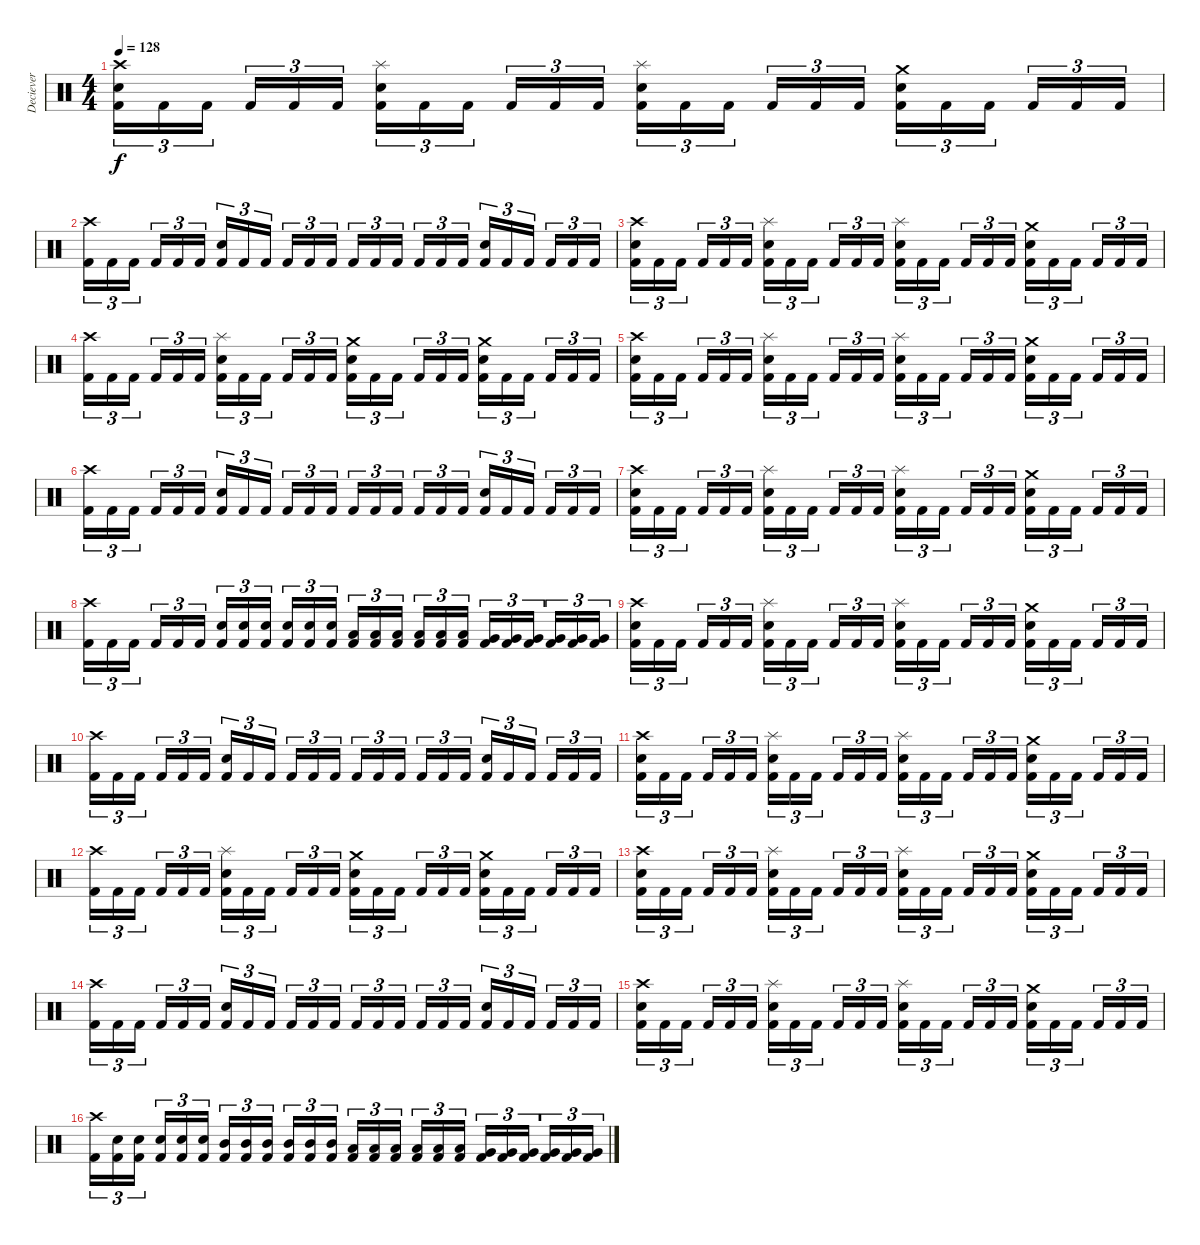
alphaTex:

\track ("Deciever" "Deciever") {instrument percussion}
\staff {score}
\articulation defaults
\ts (4 4)
\tempo 128
\clef neutral
\ks c
("Crash high (hit)" "Electric Snare (hit)" "Kick (hit) 2").16{tu (3 2) dy f} "Kick (hit) 2".16{tu (3 2)} "Kick (hit) 2".16{tu (3 2) beam splitsecondary} "Kick (hit) 2".16{tu (3 2)} "Kick (hit) 2".16{tu (3 2)} "Kick (hit) 2".16{tu (3 2)} ("Splash (hit)" "Electric Snare (hit)" "Kick (hit) 2").16{tu (3 2)} "Kick (hit) 2".16{tu (3 2)} "Kick (hit) 2".16{tu (3 2) beam splitsecondary} "Kick (hit) 2".16{tu (3 2)} "Kick (hit) 2".16{tu (3 2)} "Kick (hit) 2".16{tu (3 2)} ("Splash (hit)" "Electric Snare (hit)" "Kick (hit) 2").16{tu (3 2)} "Kick (hit) 2".16{tu (3 2)} "Kick (hit) 2".16{tu (3 2) beam splitsecondary} "Kick (hit) 2".16{tu (3 2)} "Kick (hit) 2".16{tu (3 2)} "Kick (hit) 2".16{tu (3 2)} ("Crash medium (hit)" "Electric Snare (hit)" "Kick (hit) 2").16{tu (3 2)} "Kick (hit) 2".16{tu (3 2)} "Kick (hit) 2".16{tu (3 2) beam splitsecondary} "Kick (hit) 2".16{tu (3 2)} "Kick (hit) 2".16{tu (3 2)} "Kick (hit) 2".16{tu (3 2)} |
("Crash high (hit)" "Kick (hit) 2").16{tu (3 2)} "Kick (hit) 2".16{tu (3 2)} "Kick (hit) 2".16{tu (3 2) beam splitsecondary} "Kick (hit) 2".16{tu (3 2)} "Kick (hit) 2".16{tu (3 2)} "Kick (hit) 2".16{tu (3 2)} ("Electric Snare (hit)" "Kick (hit) 2").16{tu (3 2)} "Kick (hit) 2".16{tu (3 2)} "Kick (hit) 2".16{tu (3 2) beam splitsecondary} "Kick (hit) 2".16{tu (3 2)} "Kick (hit) 2".16{tu (3 2)} "Kick (hit) 2".16{tu (3 2)} "Kick (hit) 2".16{tu (3 2)} "Kick (hit) 2".16{tu (3 2)} "Kick (hit) 2".16{tu (3 2) beam splitsecondary} "Kick (hit) 2".16{tu (3 2)} "Kick (hit) 2".16{tu (3 2)} "Kick (hit) 2".16{tu (3 2)} ("Electric Snare (hit)" "Kick (hit) 2").16{tu (3 2)} "Kick (hit) 2".16{tu (3 2)} "Kick (hit) 2".16{tu (3 2) beam splitsecondary} "Kick (hit) 2".16{tu (3 2)} "Kick (hit) 2".16{tu (3 2)} "Kick (hit) 2".16{tu (3 2)} |
("Crash high (hit)" "Electric Snare (hit)" "Kick (hit) 2").16{tu (3 2)} "Kick (hit) 2".16{tu (3 2)} "Kick (hit) 2".16{tu (3 2) beam splitsecondary} "Kick (hit) 2".16{tu (3 2)} "Kick (hit) 2".16{tu (3 2)} "Kick (hit) 2".16{tu (3 2)} ("Splash (hit)" "Electric Snare (hit)" "Kick (hit) 2").16{tu (3 2)} "Kick (hit) 2".16{tu (3 2)} "Kick (hit) 2".16{tu (3 2) beam splitsecondary} "Kick (hit) 2".16{tu (3 2)} "Kick (hit) 2".16{tu (3 2)} "Kick (hit) 2".16{tu (3 2)} ("Splash (hit)" "Electric Snare (hit)" "Kick (hit) 2").16{tu (3 2)} "Kick (hit) 2".16{tu (3 2)} "Kick (hit) 2".16{tu (3 2) beam splitsecondary} "Kick (hit) 2".16{tu (3 2)} "Kick (hit) 2".16{tu (3 2)} "Kick (hit) 2".16{tu (3 2)} ("Crash medium (hit)" "Electric Snare (hit)" "Kick (hit) 2").16{tu (3 2)} "Kick (hit) 2".16{tu (3 2)} "Kick (hit) 2".16{tu (3 2) beam splitsecondary} "Kick (hit) 2".16{tu (3 2)} "Kick (hit) 2".16{tu (3 2)} "Kick (hit) 2".16{tu (3 2)} |
("Crash high (hit)" "Kick (hit) 2").16{tu (3 2)} "Kick (hit) 2".16{tu (3 2)} "Kick (hit) 2".16{tu (3 2) beam splitsecondary} "Kick (hit) 2".16{tu (3 2)} "Kick (hit) 2".16{tu (3 2)} "Kick (hit) 2".16{tu (3 2)} ("Splash (hit)" "Electric Snare (hit)" "Kick (hit) 2").16{tu (3 2)} "Kick (hit) 2".16{tu (3 2)} "Kick (hit) 2".16{tu (3 2) beam splitsecondary} "Kick (hit) 2".16{tu (3 2)} "Kick (hit) 2".16{tu (3 2)} "Kick (hit) 2".16{tu (3 2)} ("Crash medium (hit)" "Electric Snare (hit)" "Kick (hit) 2").16{tu (3 2)} "Kick (hit) 2".16{tu (3 2)} "Kick (hit) 2".16{tu (3 2) beam splitsecondary} "Kick (hit) 2".16{tu (3 2)} "Kick (hit) 2".16{tu (3 2)} "Kick (hit) 2".16{tu (3 2)} ("Crash medium (hit)" "Electric Snare (hit)" "Kick (hit) 2").16{tu (3 2)} "Kick (hit) 2".16{tu (3 2)} "Kick (hit) 2".16{tu (3 2) beam splitsecondary} "Kick (hit) 2".16{tu (3 2)} "Kick (hit) 2".16{tu (3 2)} "Kick (hit) 2".16{tu (3 2)} |
("Crash high (hit)" "Electric Snare (hit)" "Kick (hit) 2").16{tu (3 2)} "Kick (hit) 2".16{tu (3 2)} "Kick (hit) 2".16{tu (3 2) beam splitsecondary} "Kick (hit) 2".16{tu (3 2)} "Kick (hit) 2".16{tu (3 2)} "Kick (hit) 2".16{tu (3 2)} ("Splash (hit)" "Electric Snare (hit)" "Kick (hit) 2").16{tu (3 2)} "Kick (hit) 2".16{tu (3 2)} "Kick (hit) 2".16{tu (3 2) beam splitsecondary} "Kick (hit) 2".16{tu (3 2)} "Kick (hit) 2".16{tu (3 2)} "Kick (hit) 2".16{tu (3 2)} ("Splash (hit)" "Electric Snare (hit)" "Kick (hit) 2").16{tu (3 2)} "Kick (hit) 2".16{tu (3 2)} "Kick (hit) 2".16{tu (3 2) beam splitsecondary} "Kick (hit) 2".16{tu (3 2)} "Kick (hit) 2".16{tu (3 2)} "Kick (hit) 2".16{tu (3 2)} ("Crash medium (hit)" "Electric Snare (hit)" "Kick (hit) 2").16{tu (3 2)} "Kick (hit) 2".16{tu (3 2)} "Kick (hit) 2".16{tu (3 2) beam splitsecondary} "Kick (hit) 2".16{tu (3 2)} "Kick (hit) 2".16{tu (3 2)} "Kick (hit) 2".16{tu (3 2)} |
("Crash high (hit)" "Kick (hit) 2").16{tu (3 2)} "Kick (hit) 2".16{tu (3 2)} "Kick (hit) 2".16{tu (3 2) beam splitsecondary} "Kick (hit) 2".16{tu (3 2)} "Kick (hit) 2".16{tu (3 2)} "Kick (hit) 2".16{tu (3 2)} ("Electric Snare (hit)" "Kick (hit) 2").16{tu (3 2)} "Kick (hit) 2".16{tu (3 2)} "Kick (hit) 2".16{tu (3 2) beam splitsecondary} "Kick (hit) 2".16{tu (3 2)} "Kick (hit) 2".16{tu (3 2)} "Kick (hit) 2".16{tu (3 2)} "Kick (hit) 2".16{tu (3 2)} "Kick (hit) 2".16{tu (3 2)} "Kick (hit) 2".16{tu (3 2) beam splitsecondary} "Kick (hit) 2".16{tu (3 2)} "Kick (hit) 2".16{tu (3 2)} "Kick (hit) 2".16{tu (3 2)} ("Electric Snare (hit)" "Kick (hit) 2").16{tu (3 2)} "Kick (hit) 2".16{tu (3 2)} "Kick (hit) 2".16{tu (3 2) beam splitsecondary} "Kick (hit) 2".16{tu (3 2)} "Kick (hit) 2".16{tu (3 2)} "Kick (hit) 2".16{tu (3 2)} |
("Crash high (hit)" "Electric Snare (hit)" "Kick (hit) 2").16{tu (3 2)} "Kick (hit) 2".16{tu (3 2)} "Kick (hit) 2".16{tu (3 2) beam splitsecondary} "Kick (hit) 2".16{tu (3 2)} "Kick (hit) 2".16{tu (3 2)} "Kick (hit) 2".16{tu (3 2)} ("Splash (hit)" "Electric Snare (hit)" "Kick (hit) 2").16{tu (3 2)} "Kick (hit) 2".16{tu (3 2)} "Kick (hit) 2".16{tu (3 2) beam splitsecondary} "Kick (hit) 2".16{tu (3 2)} "Kick (hit) 2".16{tu (3 2)} "Kick (hit) 2".16{tu (3 2)} ("Splash (hit)" "Electric Snare (hit)" "Kick (hit) 2").16{tu (3 2)} "Kick (hit) 2".16{tu (3 2)} "Kick (hit) 2".16{tu (3 2) beam splitsecondary} "Kick (hit) 2".16{tu (3 2)} "Kick (hit) 2".16{tu (3 2)} "Kick (hit) 2".16{tu (3 2)} ("Crash medium (hit)" "Electric Snare (hit)" "Kick (hit) 2").16{tu (3 2)} "Kick (hit) 2".16{tu (3 2)} "Kick (hit) 2".16{tu (3 2) beam splitsecondary} "Kick (hit) 2".16{tu (3 2)} "Kick (hit) 2".16{tu (3 2)} "Kick (hit) 2".16{tu (3 2)} |
("Crash high (hit)" "Kick (hit) 2").16{tu (3 2)} "Kick (hit) 2".16{tu (3 2)} "Kick (hit) 2".16{tu (3 2) beam splitsecondary} "Kick (hit) 2".16{tu (3 2)} "Kick (hit) 2".16{tu (3 2)} "Kick (hit) 2".16{tu (3 2)} ("Electric Snare (hit)" "Kick (hit) 2").16{tu (3 2)} ("Electric Snare (hit)" "Kick (hit) 2").16{tu (3 2)} ("Electric Snare (hit)" "Kick (hit) 2").16{tu (3 2) beam splitsecondary} ("Electric Snare (hit)" "Kick (hit) 2").16{tu (3 2)} ("Electric Snare (hit)" "Kick (hit) 2").16{tu (3 2)} ("Electric Snare (hit)" "Kick (hit) 2").16{tu (3 2)} ("Low Tom (hit)" "Kick (hit) 2").16{tu (3 2)} ("Low Tom (hit)" "Kick (hit) 2").16{tu (3 2)} ("Low Tom (hit)" "Kick (hit) 2").16{tu (3 2) beam splitsecondary} ("Low Tom (hit)" "Kick (hit) 2").16{tu (3 2)} ("Low Tom (hit)" "Kick (hit) 2").16{tu (3 2)} ("Low Tom (hit)" "Kick (hit) 2").16{tu (3 2)} ("Very Low Tom (hit)" "Kick (hit) 2").16{tu (3 2)} ("Very Low Tom (hit)" "Kick (hit) 2").16{tu (3 2)} ("Very Low Tom (hit)" "Kick (hit) 2").16{tu (3 2) beam splitsecondary} ("Very Low Tom (hit)" "Kick (hit) 2").16{tu (3 2)} ("Very Low Tom (hit)" "Kick (hit) 2").16{tu (3 2)} ("Very Low Tom (hit)" "Kick (hit) 2").16{tu (3 2)} |
("Crash high (hit)" "Electric Snare (hit)" "Kick (hit) 2").16{tu (3 2)} "Kick (hit) 2".16{tu (3 2)} "Kick (hit) 2".16{tu (3 2) beam splitsecondary} "Kick (hit) 2".16{tu (3 2)} "Kick (hit) 2".16{tu (3 2)} "Kick (hit) 2".16{tu (3 2)} ("Splash (hit)" "Electric Snare (hit)" "Kick (hit) 2").16{tu (3 2)} "Kick (hit) 2".16{tu (3 2)} "Kick (hit) 2".16{tu (3 2) beam splitsecondary} "Kick (hit) 2".16{tu (3 2)} "Kick (hit) 2".16{tu (3 2)} "Kick (hit) 2".16{tu (3 2)} ("Splash (hit)" "Electric Snare (hit)" "Kick (hit) 2").16{tu (3 2)} "Kick (hit) 2".16{tu (3 2)} "Kick (hit) 2".16{tu (3 2) beam splitsecondary} "Kick (hit) 2".16{tu (3 2)} "Kick (hit) 2".16{tu (3 2)} "Kick (hit) 2".16{tu (3 2)} ("Crash medium (hit)" "Electric Snare (hit)" "Kick (hit) 2").16{tu (3 2)} "Kick (hit) 2".16{tu (3 2)} "Kick (hit) 2".16{tu (3 2) beam splitsecondary} "Kick (hit) 2".16{tu (3 2)} "Kick (hit) 2".16{tu (3 2)} "Kick (hit) 2".16{tu (3 2)} |
("Crash high (hit)" "Kick (hit) 2").16{tu (3 2)} "Kick (hit) 2".16{tu (3 2)} "Kick (hit) 2".16{tu (3 2) beam splitsecondary} "Kick (hit) 2".16{tu (3 2)} "Kick (hit) 2".16{tu (3 2)} "Kick (hit) 2".16{tu (3 2)} ("Electric Snare (hit)" "Kick (hit) 2").16{tu (3 2)} "Kick (hit) 2".16{tu (3 2)} "Kick (hit) 2".16{tu (3 2) beam splitsecondary} "Kick (hit) 2".16{tu (3 2)} "Kick (hit) 2".16{tu (3 2)} "Kick (hit) 2".16{tu (3 2)} "Kick (hit) 2".16{tu (3 2)} "Kick (hit) 2".16{tu (3 2)} "Kick (hit) 2".16{tu (3 2) beam splitsecondary} "Kick (hit) 2".16{tu (3 2)} "Kick (hit) 2".16{tu (3 2)} "Kick (hit) 2".16{tu (3 2)} ("Electric Snare (hit)" "Kick (hit) 2").16{tu (3 2)} "Kick (hit) 2".16{tu (3 2)} "Kick (hit) 2".16{tu (3 2) beam splitsecondary} "Kick (hit) 2".16{tu (3 2)} "Kick (hit) 2".16{tu (3 2)} "Kick (hit) 2".16{tu (3 2)} |
("Crash high (hit)" "Electric Snare (hit)" "Kick (hit) 2").16{tu (3 2)} "Kick (hit) 2".16{tu (3 2)} "Kick (hit) 2".16{tu (3 2) beam splitsecondary} "Kick (hit) 2".16{tu (3 2)} "Kick (hit) 2".16{tu (3 2)} "Kick (hit) 2".16{tu (3 2)} ("Splash (hit)" "Electric Snare (hit)" "Kick (hit) 2").16{tu (3 2)} "Kick (hit) 2".16{tu (3 2)} "Kick (hit) 2".16{tu (3 2) beam splitsecondary} "Kick (hit) 2".16{tu (3 2)} "Kick (hit) 2".16{tu (3 2)} "Kick (hit) 2".16{tu (3 2)} ("Splash (hit)" "Electric Snare (hit)" "Kick (hit) 2").16{tu (3 2)} "Kick (hit) 2".16{tu (3 2)} "Kick (hit) 2".16{tu (3 2) beam splitsecondary} "Kick (hit) 2".16{tu (3 2)} "Kick (hit) 2".16{tu (3 2)} "Kick (hit) 2".16{tu (3 2)} ("Crash medium (hit)" "Electric Snare (hit)" "Kick (hit) 2").16{tu (3 2)} "Kick (hit) 2".16{tu (3 2)} "Kick (hit) 2".16{tu (3 2) beam splitsecondary} "Kick (hit) 2".16{tu (3 2)} "Kick (hit) 2".16{tu (3 2)} "Kick (hit) 2".16{tu (3 2)} |
("Crash high (hit)" "Kick (hit) 2").16{tu (3 2)} "Kick (hit) 2".16{tu (3 2)} "Kick (hit) 2".16{tu (3 2) beam splitsecondary} "Kick (hit) 2".16{tu (3 2)} "Kick (hit) 2".16{tu (3 2)} "Kick (hit) 2".16{tu (3 2)} ("Splash (hit)" "Electric Snare (hit)" "Kick (hit) 2").16{tu (3 2)} "Kick (hit) 2".16{tu (3 2)} "Kick (hit) 2".16{tu (3 2) beam splitsecondary} "Kick (hit) 2".16{tu (3 2)} "Kick (hit) 2".16{tu (3 2)} "Kick (hit) 2".16{tu (3 2)} ("Crash medium (hit)" "Electric Snare (hit)" "Kick (hit) 2").16{tu (3 2)} "Kick (hit) 2".16{tu (3 2)} "Kick (hit) 2".16{tu (3 2) beam splitsecondary} "Kick (hit) 2".16{tu (3 2)} "Kick (hit) 2".16{tu (3 2)} "Kick (hit) 2".16{tu (3 2)} ("Crash medium (hit)" "Electric Snare (hit)" "Kick (hit) 2").16{tu (3 2)} "Kick (hit) 2".16{tu (3 2)} "Kick (hit) 2".16{tu (3 2) beam splitsecondary} "Kick (hit) 2".16{tu (3 2)} "Kick (hit) 2".16{tu (3 2)} "Kick (hit) 2".16{tu (3 2)} |
("Crash high (hit)" "Electric Snare (hit)" "Kick (hit) 2").16{tu (3 2)} "Kick (hit) 2".16{tu (3 2)} "Kick (hit) 2".16{tu (3 2) beam splitsecondary} "Kick (hit) 2".16{tu (3 2)} "Kick (hit) 2".16{tu (3 2)} "Kick (hit) 2".16{tu (3 2)} ("Splash (hit)" "Electric Snare (hit)" "Kick (hit) 2").16{tu (3 2)} "Kick (hit) 2".16{tu (3 2)} "Kick (hit) 2".16{tu (3 2) beam splitsecondary} "Kick (hit) 2".16{tu (3 2)} "Kick (hit) 2".16{tu (3 2)} "Kick (hit) 2".16{tu (3 2)} ("Splash (hit)" "Electric Snare (hit)" "Kick (hit) 2").16{tu (3 2)} "Kick (hit) 2".16{tu (3 2)} "Kick (hit) 2".16{tu (3 2) beam splitsecondary} "Kick (hit) 2".16{tu (3 2)} "Kick (hit) 2".16{tu (3 2)} "Kick (hit) 2".16{tu (3 2)} ("Crash medium (hit)" "Electric Snare (hit)" "Kick (hit) 2").16{tu (3 2)} "Kick (hit) 2".16{tu (3 2)} "Kick (hit) 2".16{tu (3 2) beam splitsecondary} "Kick (hit) 2".16{tu (3 2)} "Kick (hit) 2".16{tu (3 2)} "Kick (hit) 2".16{tu (3 2)} |
("Crash high (hit)" "Kick (hit) 2").16{tu (3 2)} "Kick (hit) 2".16{tu (3 2)} "Kick (hit) 2".16{tu (3 2) beam splitsecondary} "Kick (hit) 2".16{tu (3 2)} "Kick (hit) 2".16{tu (3 2)} "Kick (hit) 2".16{tu (3 2)} ("Electric Snare (hit)" "Kick (hit) 2").16{tu (3 2)} "Kick (hit) 2".16{tu (3 2)} "Kick (hit) 2".16{tu (3 2) beam splitsecondary} "Kick (hit) 2".16{tu (3 2)} "Kick (hit) 2".16{tu (3 2)} "Kick (hit) 2".16{tu (3 2)} "Kick (hit) 2".16{tu (3 2)} "Kick (hit) 2".16{tu (3 2)} "Kick (hit) 2".16{tu (3 2) beam splitsecondary} "Kick (hit) 2".16{tu (3 2)} "Kick (hit) 2".16{tu (3 2)} "Kick (hit) 2".16{tu (3 2)} ("Electric Snare (hit)" "Kick (hit) 2").16{tu (3 2)} "Kick (hit) 2".16{tu (3 2)} "Kick (hit) 2".16{tu (3 2) beam splitsecondary} "Kick (hit) 2".16{tu (3 2)} "Kick (hit) 2".16{tu (3 2)} "Kick (hit) 2".16{tu (3 2)} |
("Crash high (hit)" "Electric Snare (hit)" "Kick (hit) 2").16{tu (3 2)} "Kick (hit) 2".16{tu (3 2)} "Kick (hit) 2".16{tu (3 2) beam splitsecondary} "Kick (hit) 2".16{tu (3 2)} "Kick (hit) 2".16{tu (3 2)} "Kick (hit) 2".16{tu (3 2)} ("Splash (hit)" "Electric Snare (hit)" "Kick (hit) 2").16{tu (3 2)} "Kick (hit) 2".16{tu (3 2)} "Kick (hit) 2".16{tu (3 2) beam splitsecondary} "Kick (hit) 2".16{tu (3 2)} "Kick (hit) 2".16{tu (3 2)} "Kick (hit) 2".16{tu (3 2)} ("Splash (hit)" "Electric Snare (hit)" "Kick (hit) 2").16{tu (3 2)} "Kick (hit) 2".16{tu (3 2)} "Kick (hit) 2".16{tu (3 2) beam splitsecondary} "Kick (hit) 2".16{tu (3 2)} "Kick (hit) 2".16{tu (3 2)} "Kick (hit) 2".16{tu (3 2)} ("Crash medium (hit)" "Electric Snare (hit)" "Kick (hit) 2").16{tu (3 2)} "Kick (hit) 2".16{tu (3 2)} "Kick (hit) 2".16{tu (3 2) beam splitsecondary} "Kick (hit) 2".16{tu (3 2)} "Kick (hit) 2".16{tu (3 2)} "Kick (hit) 2".16{tu (3 2)} |
("Crash high (hit)" "Kick (hit) 2").16{tu (3 2)} ("Electric Snare (hit)" "Kick (hit) 2").16{tu (3 2)} ("Electric Snare (hit)" "Kick (hit) 2").16{tu (3 2) beam splitsecondary} ("Electric Snare (hit)" "Kick (hit) 2").16{tu (3 2)} ("Electric Snare (hit)" "Kick (hit) 2").16{tu (3 2)} ("Electric Snare (hit)" "Kick (hit) 2").16{tu (3 2)} ("Mid Tom (hit)" "Kick (hit) 2").16{tu (3 2)} ("Mid Tom (hit)" "Kick (hit) 2").16{tu (3 2)} ("Mid Tom (hit)" "Kick (hit) 2").16{tu (3 2) beam splitsecondary} ("Mid Tom (hit)" "Kick (hit) 2").16{tu (3 2)} ("Mid Tom (hit)" "Kick (hit) 2").16{tu (3 2)} ("Mid Tom (hit)" "Kick (hit) 2").16{tu (3 2)} ("Low Tom (hit)" "Kick (hit) 2").16{tu (3 2)} ("Low Tom (hit)" "Kick (hit) 2").16{tu (3 2)} ("Low Tom (hit)" "Kick (hit) 2").16{tu (3 2) beam splitsecondary} ("Low Tom (hit)" "Kick (hit) 2").16{tu (3 2)} ("Low Tom (hit)" "Kick (hit) 2").16{tu (3 2)} ("Low Tom (hit)" "Kick (hit) 2").16{tu (3 2)} ("Very Low Tom (hit)" "Kick (hit) 2").16{tu (3 2)} ("Very Low Tom (hit)" "Kick (hit) 2").16{tu (3 2)} ("Very Low Tom (hit)" "Kick (hit) 2").16{tu (3 2) beam splitsecondary} ("Very Low Tom (hit)" "Kick (hit) 2").16{tu (3 2)} ("Very Low Tom (hit)" "Kick (hit) 2").16{tu (3 2)} ("Very Low Tom (hit)" "Kick (hit) 2").16{tu (3 2)}
